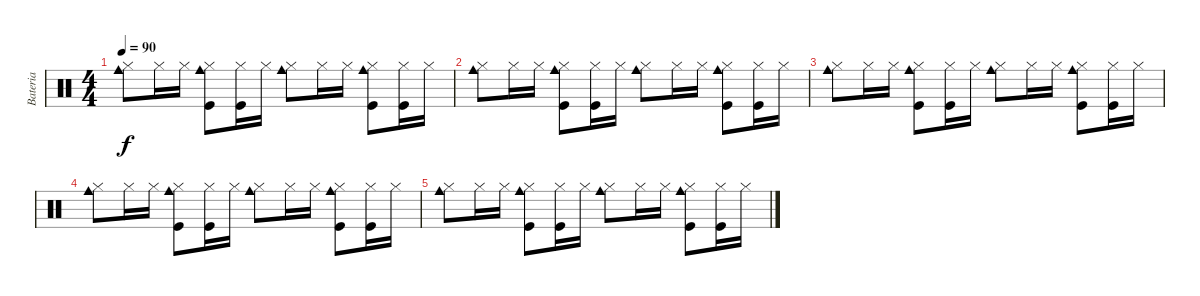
\track ("Bateria" "Bateria") {instrument percussion}
\staff {score}
\articulation defaults
\ts (4 4)
\tempo 90
\clef neutral
\ks c
("Hi-Hat (closed)" "Cowbell medium (hit)").8{dy f} "Hi-Hat (closed)".16 "Hi-Hat (closed)".16 ("Hi-Hat (closed)" "Kick (hit)" "Cowbell medium (hit)").8 ("Hi-Hat (closed)" "Kick (hit)").16 "Hi-Hat (closed)".16 ("Hi-Hat (closed)" "Cowbell medium (hit)").8 "Hi-Hat (closed)".16 "Hi-Hat (closed)".16 ("Hi-Hat (closed)" "Kick (hit)" "Cowbell medium (hit)").8 ("Hi-Hat (closed)" "Kick (hit)").16 "Hi-Hat (closed)".16 |
("Hi-Hat (closed)" "Cowbell medium (hit)").8{volume 0} "Hi-Hat (closed)".16 "Hi-Hat (closed)".16 ("Hi-Hat (closed)" "Kick (hit)" "Cowbell medium (hit)").8 ("Hi-Hat (closed)" "Kick (hit)").16 "Hi-Hat (closed)".16 ("Hi-Hat (closed)" "Cowbell medium (hit)").8 "Hi-Hat (closed)".16 "Hi-Hat (closed)".16 ("Hi-Hat (closed)" "Kick (hit)" "Cowbell medium (hit)").8 ("Hi-Hat (closed)" "Kick (hit)").16 "Hi-Hat (closed)".16 |
("Hi-Hat (closed)" "Cowbell medium (hit)").8 "Hi-Hat (closed)".16 "Hi-Hat (closed)".16 ("Hi-Hat (closed)" "Kick (hit)" "Cowbell medium (hit)").8 ("Hi-Hat (closed)" "Kick (hit)").16 "Hi-Hat (closed)".16 ("Hi-Hat (closed)" "Cowbell medium (hit)").8 "Hi-Hat (closed)".16 "Hi-Hat (closed)".16 ("Hi-Hat (closed)" "Kick (hit)" "Cowbell medium (hit)").8 ("Hi-Hat (closed)" "Kick (hit)").16 "Hi-Hat (closed)".16 |
("Hi-Hat (closed)" "Cowbell medium (hit)").8 "Hi-Hat (closed)".16 "Hi-Hat (closed)".16 ("Hi-Hat (closed)" "Kick (hit)" "Cowbell medium (hit)").8 ("Hi-Hat (closed)" "Kick (hit)").16 "Hi-Hat (closed)".16 ("Hi-Hat (closed)" "Cowbell medium (hit)").8 "Hi-Hat (closed)".16 "Hi-Hat (closed)".16 ("Hi-Hat (closed)" "Kick (hit)" "Cowbell medium (hit)").8 ("Hi-Hat (closed)" "Kick (hit)").16 "Hi-Hat (closed)".16 |
("Hi-Hat (closed)" "Cowbell medium (hit)").8 "Hi-Hat (closed)".16 "Hi-Hat (closed)".16 ("Hi-Hat (closed)" "Kick (hit)" "Cowbell medium (hit)").8 ("Hi-Hat (closed)" "Kick (hit)").16 "Hi-Hat (closed)".16 ("Hi-Hat (closed)" "Cowbell medium (hit)").8 "Hi-Hat (closed)".16 "Hi-Hat (closed)".16 ("Hi-Hat (closed)" "Kick (hit)" "Cowbell medium (hit)").8 ("Hi-Hat (closed)" "Kick (hit)").16 "Hi-Hat (closed)".16
